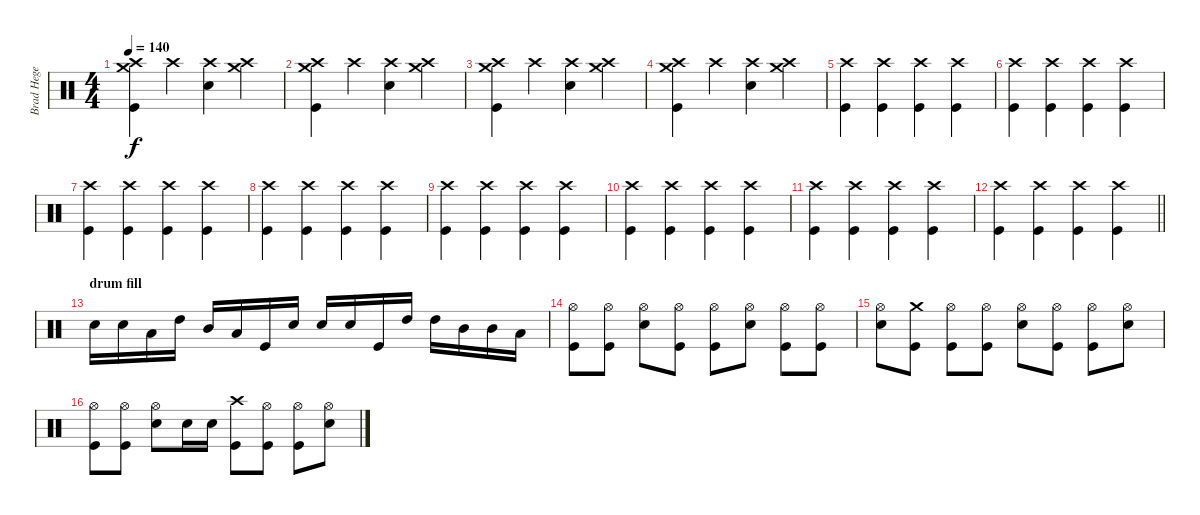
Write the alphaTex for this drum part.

\track ("Brad Hege" "Brad Hege") {instrument percussion}
\staff {score}
\articulation defaults
\ts (4 4)
\tempo 140
\clef neutral
\ks c
("Crash high (hit)" "Crash medium (hit)" "Kick (hit)").4{dy f} "Crash high (hit)".4 ("Crash high (hit)" "Snare (hit) 2").4 ("Crash high (hit)" "Crash medium (hit)").4 |
("Crash high (hit)" "Crash medium (hit)" "Kick (hit)").4 "Crash high (hit)".4 ("Crash high (hit)" "Snare (hit) 2").4 ("Crash high (hit)" "Crash medium (hit)").4 |
("Crash high (hit)" "Crash medium (hit)" "Kick (hit)").4 "Crash high (hit)".4 ("Crash high (hit)" "Snare (hit) 2").4 ("Crash high (hit)" "Crash medium (hit)").4 |
("Crash high (hit)" "Crash medium (hit)" "Kick (hit)").4 "Crash high (hit)".4 ("Crash high (hit)" "Snare (hit) 2").4 ("Crash high (hit)" "Crash medium (hit)").4 |
("Crash high (hit)" "Kick (hit)").4 ("Crash high (hit)" "Kick (hit)").4 ("Crash high (hit)" "Kick (hit)").4 ("Crash high (hit)" "Kick (hit)").4 |
("Crash high (hit)" "Kick (hit)").4 ("Crash high (hit)" "Kick (hit)").4 ("Crash high (hit)" "Kick (hit)").4 ("Crash high (hit)" "Kick (hit)").4 |
("Crash high (hit)" "Kick (hit)").4 ("Crash high (hit)" "Kick (hit)").4 ("Crash high (hit)" "Kick (hit)").4 ("Crash high (hit)" "Kick (hit)").4 |
("Crash high (hit)" "Kick (hit)").4 ("Crash high (hit)" "Kick (hit)").4 ("Crash high (hit)" "Kick (hit)").4 ("Crash high (hit)" "Kick (hit)").4 |
("Crash high (hit)" "Kick (hit)").4 ("Crash high (hit)" "Kick (hit)").4 ("Crash high (hit)" "Kick (hit)").4 ("Crash high (hit)" "Kick (hit)").4 |
("Crash high (hit)" "Kick (hit)").4 ("Crash high (hit)" "Kick (hit)").4 ("Crash high (hit)" "Kick (hit)").4 ("Crash high (hit)" "Kick (hit)").4 |
("Crash high (hit)" "Kick (hit)").4 ("Crash high (hit)" "Kick (hit)").4 ("Crash high (hit)" "Kick (hit)").4 ("Crash high (hit)" "Kick (hit)").4 |
\barLineRight lightlight
("Crash high (hit)" "Kick (hit)").4 ("Crash high (hit)" "Kick (hit)").4 ("Crash high (hit)" "Kick (hit)").4 ("Crash high (hit)" "Kick (hit)").4 |
\section ("" "drum fill")
"Snare (hit) 2".16 "Snare (hit) 2".16 "Low Floor Tom (hit)".16 "High Tom (hit)".16 "Mid Tom (hit)".16 "Low Floor Tom (hit)".16 "Kick (hit)".16 "Snare (hit) 2".16 "Snare (hit) 2".16 "Snare (hit) 2".16 "Kick (hit)".16 "High Tom (hit)".16 "High Tom (hit)".16 "Mid Tom (hit)".16 "Mid Tom (hit)".16 "Low Floor Tom (hit)".16 |
("Hi-Hat (open)" "Kick (hit)").8 ("Hi-Hat (open)" "Kick (hit)").8 ("Hi-Hat (open)" "Snare (hit) 2").8 ("Hi-Hat (open)" "Kick (hit)").8 ("Hi-Hat (open)" "Kick (hit)").8 ("Hi-Hat (open)" "Snare (hit) 2").8 ("Hi-Hat (open)" "Kick (hit)").8 ("Hi-Hat (open)" "Kick (hit)").8 |
("Hi-Hat (open)" "Snare (hit) 2").8 ("Crash medium (hit)" "Kick (hit)").8 ("Hi-Hat (open)" "Kick (hit)").8 ("Hi-Hat (open)" "Kick (hit)").8 ("Hi-Hat (open)" "Snare (hit) 2").8 ("Hi-Hat (open)" "Kick (hit)").8 ("Hi-Hat (open)" "Kick (hit)").8 ("Hi-Hat (open)" "Snare (hit) 2").8 |
("Hi-Hat (open)" "Kick (hit)").8 ("Hi-Hat (open)" "Kick (hit)").8 ("Hi-Hat (open)" "Snare (hit) 2").8 "Snare (hit) 2".16 "Snare (hit) 2".16 ("Crash high (hit)" "Kick (hit)").8 ("Hi-Hat (open)" "Kick (hit)").8 ("Hi-Hat (open)" "Kick (hit)").8 ("Hi-Hat (open)" "Snare (hit) 2").8
